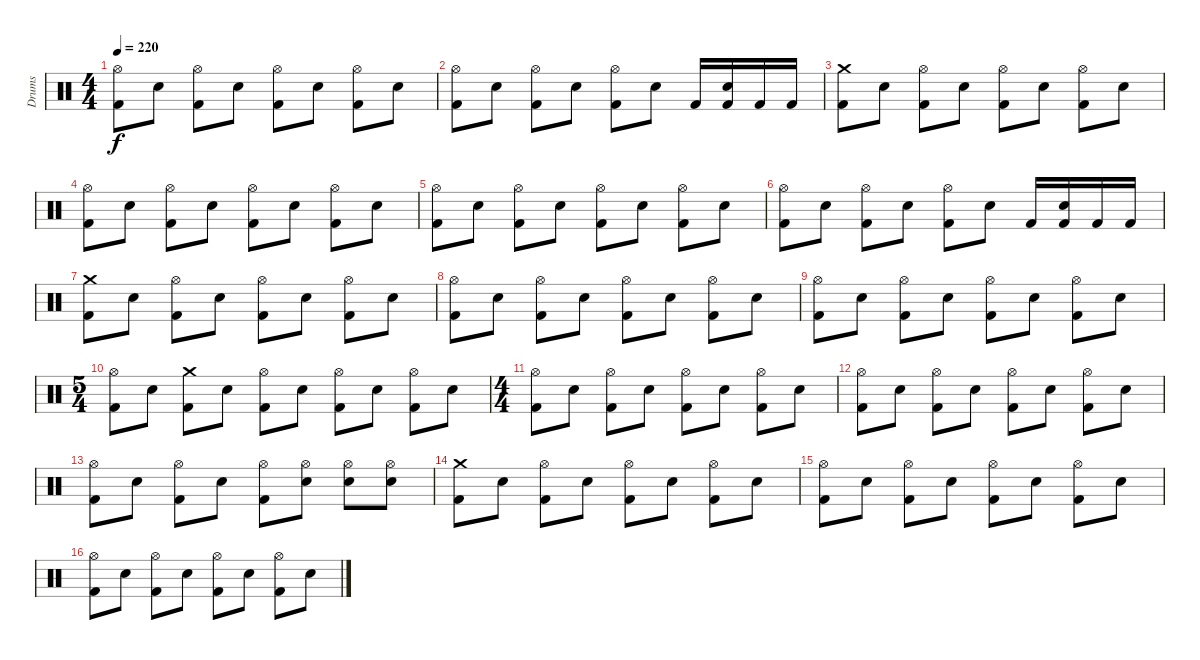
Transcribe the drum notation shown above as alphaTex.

\track ("Drums" "Drums") {instrument percussion}
\staff {score}
\articulation defaults
\ts (4 4)
\tempo 220
\clef neutral
\ks c
("Hi-Hat (open)" "Kick (hit) 2").8{dy f} "Electric Snare (hit)".8 ("Hi-Hat (open)" "Kick (hit) 2").8 "Electric Snare (hit)".8 ("Hi-Hat (open)" "Kick (hit) 2").8 "Electric Snare (hit)".8 ("Hi-Hat (open)" "Kick (hit) 2").8 "Electric Snare (hit)".8 |
("Hi-Hat (open)" "Kick (hit) 2").8 "Electric Snare (hit)".8 ("Hi-Hat (open)" "Kick (hit) 2").8 "Electric Snare (hit)".8 ("Hi-Hat (open)" "Kick (hit) 2").8 "Electric Snare (hit)".8 "Kick (hit) 2".16 ("Kick (hit) 2" "Electric Snare (hit)").16 "Kick (hit) 2".16 "Kick (hit) 2".16 |
("Crash medium (hit)" "Kick (hit) 2").8 "Electric Snare (hit)".8 ("Hi-Hat (open)" "Kick (hit) 2").8 "Electric Snare (hit)".8 ("Hi-Hat (open)" "Kick (hit) 2").8 "Electric Snare (hit)".8 ("Hi-Hat (open)" "Kick (hit) 2").8 "Electric Snare (hit)".8 |
("Hi-Hat (open)" "Kick (hit) 2").8 "Electric Snare (hit)".8 ("Hi-Hat (open)" "Kick (hit) 2").8 "Electric Snare (hit)".8 ("Hi-Hat (open)" "Kick (hit) 2").8 "Electric Snare (hit)".8 ("Hi-Hat (open)" "Kick (hit) 2").8 "Electric Snare (hit)".8 |
("Hi-Hat (open)" "Kick (hit) 2").8 "Electric Snare (hit)".8 ("Hi-Hat (open)" "Kick (hit) 2").8 "Electric Snare (hit)".8 ("Hi-Hat (open)" "Kick (hit) 2").8 "Electric Snare (hit)".8 ("Hi-Hat (open)" "Kick (hit) 2").8 "Electric Snare (hit)".8 |
("Hi-Hat (open)" "Kick (hit) 2").8 "Electric Snare (hit)".8 ("Hi-Hat (open)" "Kick (hit) 2").8 "Electric Snare (hit)".8 ("Hi-Hat (open)" "Kick (hit) 2").8 "Electric Snare (hit)".8 "Kick (hit) 2".16 ("Kick (hit) 2" "Electric Snare (hit)").16 "Kick (hit) 2".16 "Kick (hit) 2".16 |
("Crash medium (hit)" "Kick (hit) 2").8 "Electric Snare (hit)".8 ("Hi-Hat (open)" "Kick (hit) 2").8 "Electric Snare (hit)".8 ("Hi-Hat (open)" "Kick (hit) 2").8 "Electric Snare (hit)".8 ("Hi-Hat (open)" "Kick (hit) 2").8 "Electric Snare (hit)".8 |
("Hi-Hat (open)" "Kick (hit) 2").8 "Electric Snare (hit)".8 ("Hi-Hat (open)" "Kick (hit) 2").8 "Electric Snare (hit)".8 ("Hi-Hat (open)" "Kick (hit) 2").8 "Electric Snare (hit)".8 ("Hi-Hat (open)" "Kick (hit) 2").8 "Electric Snare (hit)".8 |
("Hi-Hat (open)" "Kick (hit) 2").8 "Electric Snare (hit)".8 ("Hi-Hat (open)" "Kick (hit) 2").8 "Electric Snare (hit)".8 ("Hi-Hat (open)" "Kick (hit) 2").8 "Electric Snare (hit)".8 ("Hi-Hat (open)" "Kick (hit) 2").8 "Electric Snare (hit)".8 |
\ts (5 4)
("Hi-Hat (open)" "Kick (hit) 2").8 "Electric Snare (hit)".8 ("Crash medium (hit)" "Kick (hit) 2").8 "Electric Snare (hit)".8 ("Hi-Hat (open)" "Kick (hit) 2").8 "Electric Snare (hit)".8 ("Hi-Hat (open)" "Kick (hit) 2").8 "Electric Snare (hit)".8 ("Hi-Hat (open)" "Kick (hit) 2").8 "Electric Snare (hit)".8 |
\ts (4 4)
("Hi-Hat (open)" "Kick (hit) 2").8 "Electric Snare (hit)".8 ("Hi-Hat (open)" "Kick (hit) 2").8 "Electric Snare (hit)".8 ("Hi-Hat (open)" "Kick (hit) 2").8 "Electric Snare (hit)".8 ("Hi-Hat (open)" "Kick (hit) 2").8 "Electric Snare (hit)".8 |
("Hi-Hat (open)" "Kick (hit) 2").8 "Electric Snare (hit)".8 ("Hi-Hat (open)" "Kick (hit) 2").8 "Electric Snare (hit)".8 ("Hi-Hat (open)" "Kick (hit) 2").8 "Electric Snare (hit)".8 ("Hi-Hat (open)" "Kick (hit) 2").8 "Electric Snare (hit)".8 |
("Hi-Hat (open)" "Kick (hit) 2").8 "Electric Snare (hit)".8 ("Hi-Hat (open)" "Kick (hit) 2").8 "Electric Snare (hit)".8 ("Hi-Hat (open)" "Kick (hit) 2").8 ("Hi-Hat (open)" "Electric Snare (hit)").8 ("Hi-Hat (open)" "Electric Snare (hit)").8 ("Hi-Hat (open)" "Electric Snare (hit)").8 |
("Crash medium (hit)" "Kick (hit) 2").8 "Electric Snare (hit)".8 ("Hi-Hat (open)" "Kick (hit) 2").8 "Electric Snare (hit)".8 ("Hi-Hat (open)" "Kick (hit) 2").8 "Electric Snare (hit)".8 ("Hi-Hat (open)" "Kick (hit) 2").8 "Electric Snare (hit)".8 |
("Hi-Hat (open)" "Kick (hit) 2").8 "Electric Snare (hit)".8 ("Hi-Hat (open)" "Kick (hit) 2").8 "Electric Snare (hit)".8 ("Hi-Hat (open)" "Kick (hit) 2").8 "Electric Snare (hit)".8 ("Hi-Hat (open)" "Kick (hit) 2").8 "Electric Snare (hit)".8 |
("Hi-Hat (open)" "Kick (hit) 2").8 "Electric Snare (hit)".8 ("Hi-Hat (open)" "Kick (hit) 2").8 "Electric Snare (hit)".8 ("Hi-Hat (open)" "Kick (hit) 2").8 "Electric Snare (hit)".8 ("Hi-Hat (open)" "Kick (hit) 2").8 "Electric Snare (hit)".8
